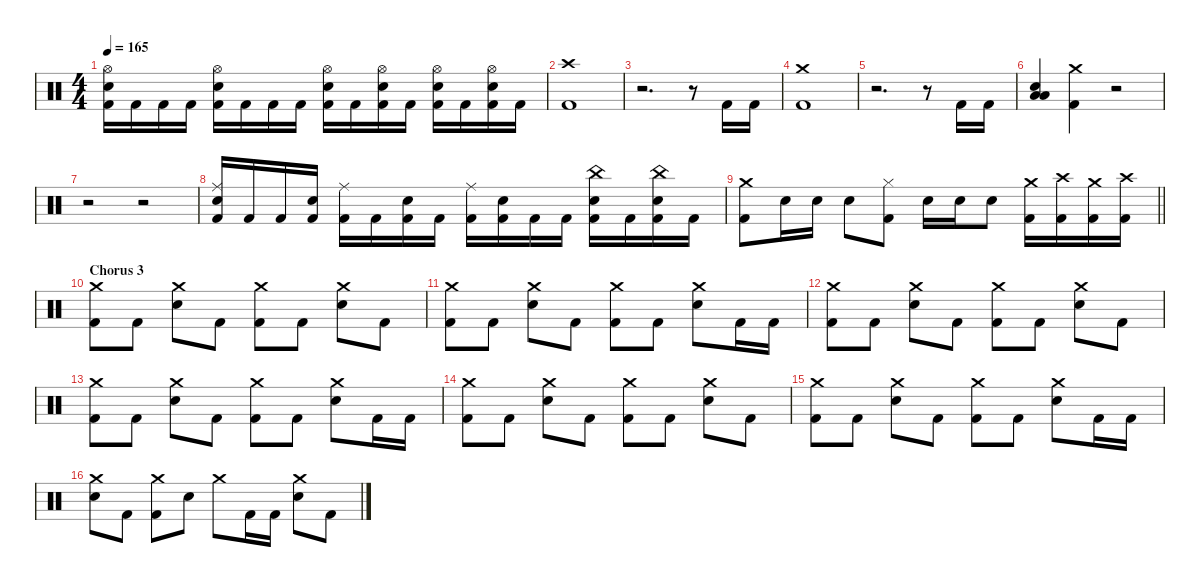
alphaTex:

\defaultSystemsLayout 4
\hideDynamics
\bracketExtendMode nobrackets
\singleTrackTrackNamePolicy hidden
\multiTrackTrackNamePolicy hidden
\firstSystemTrackNameMode fullname
\firstSystemTrackNameOrientation horizontal
\otherSystemsTrackNameOrientation horizontal
\track ("Percussions" "drm.") {instrument percussion}
\staff {score}
\articulation defaults
\ts (4 4)
\tempo 165
\clef neutral
\ks c
("Hi-Hat (open)" "Snare (hit) 2" "Kick (hit) 2").16{dy f beam Down} "Kick (hit) 2".16{beam Down} "Kick (hit) 2".16{beam Down} "Kick (hit) 2".16{beam Down} ("Hi-Hat (open)" "Snare (hit) 2" "Kick (hit) 2").16{beam Down} "Kick (hit) 2".16{beam Down} "Kick (hit) 2".16{beam Down} "Kick (hit) 2".16{beam Down} ("Hi-Hat (open)" "Snare (hit) 2" "Kick (hit) 2").16{beam Down} "Kick (hit) 2".16{beam Down} ("Hi-Hat (open)" "Snare (hit) 2" "Kick (hit) 2").16{beam Down} "Kick (hit) 2".16{beam Down} ("Hi-Hat (open)" "Snare (hit) 2" "Kick (hit) 2").16{beam Down} "Kick (hit) 2".16{beam Down} ("Hi-Hat (open)" "Snare (hit) 2" "Kick (hit) 2").16{beam Down} "Kick (hit) 2".16{beam Down} |
("Crash high (hit)" "Kick (hit) 2").1{beam Down} |
r.2{d beam Down} r.8{beam Down} "Kick (hit) 2".16{beam Up} "Kick (hit) 2".16{beam Up} |
("Crash medium (hit)" "Kick (hit) 2").1{beam Down} |
r.2{d beam Down} r.8{beam Down} "Kick (hit) 2".16{beam Up} "Kick (hit) 2".16{beam Up} |
("Snare (hit) 2" "Low Floor Tom (hit)" "Low Floor Tom (hit)").4{beam Up} ("Crash medium (hit)" "Kick (hit) 2").4{beam Down} r.2{beam Down} |
r.2{beam Down} r.2{beam Down} |
("Ride (middle)" "Snare (hit) 2" "Kick (hit) 2").16{dy fff beam Up} "Kick (hit) 2".16{beam Up} "Kick (hit) 2".16{beam Up} ("Snare (hit) 2" "Kick (hit) 2").16{beam Up} ("Ride (middle)" "Kick (hit) 2").16{beam Down} "Kick (hit) 2".16{beam Down} ("Snare (hit) 2" "Kick (hit) 2").16{beam Down} "Kick (hit) 2".16{beam Down} ("Ride (middle)" "Kick (hit) 2").16{beam Down} ("Snare (hit) 2" "Kick (hit) 2").16{beam Down} "Kick (hit) 2".16{beam Down} "Kick (hit) 2".16{beam Down} ("China (hit)" "Snare (hit) 2" "Kick (hit) 2").16{beam Down} "Kick (hit) 2".16{beam Down} ("China (hit)" "Snare (hit) 2" "Kick (hit) 2").16{beam Down} "Kick (hit) 2".16{beam Down} |
\barLineRight lightlight
("Crash medium (hit)" "Kick (hit) 2").8{beam Down} "Snare (hit) 2".16{beam Down} "Snare (hit) 2".16{beam Down} "Snare (hit) 2".8{beam Down} ("Hi-Hat (closed)" "Kick (hit) 2").8{beam Down} "Snare (hit) 2".16{beam Down} "Snare (hit) 2".16{beam Down} "Snare (hit) 2".8{beam Down} ("Crash medium (hit)" "Kick (hit) 2").16{beam Down} ("Crash high (hit)" "Kick (hit) 2").16{beam Down} ("Crash medium (hit)" "Kick (hit) 2").16{beam Down} ("Crash high (hit)" "Kick (hit) 2").16{beam Down} |
\section ("" "Chorus 3")
("Crash medium (hit)" "Kick (hit) 2").8{dy f beam Down} "Kick (hit) 2".8{beam Down} ("Crash medium (hit)" "Snare (hit) 2").8{beam Down} "Kick (hit) 2".8{beam Down} ("Crash medium (hit)" "Kick (hit) 2").8{beam Down} "Kick (hit) 2".8{beam Down} ("Crash medium (hit)" "Snare (hit) 2").8{beam Down} "Kick (hit) 2".8{beam Down} |
("Crash medium (hit)" "Kick (hit) 2").8{beam Down} "Kick (hit) 2".8{beam Down} ("Crash medium (hit)" "Snare (hit) 2").8{beam Down} "Kick (hit) 2".8{beam Down} ("Crash medium (hit)" "Kick (hit) 2").8{beam Down} "Kick (hit) 2".8{beam Down} ("Crash medium (hit)" "Snare (hit) 2").8{beam Down} "Kick (hit) 2".16{beam Down} "Kick (hit) 2".16{beam Down} |
("Crash medium (hit)" "Kick (hit) 2").8{beam Down} "Kick (hit) 2".8{beam Down} ("Crash medium (hit)" "Snare (hit) 2").8{beam Down} "Kick (hit) 2".8{beam Down} ("Crash medium (hit)" "Kick (hit) 2").8{beam Down} "Kick (hit) 2".8{beam Down} ("Crash medium (hit)" "Snare (hit) 2").8{beam Down} "Kick (hit) 2".8{beam Down} |
("Crash medium (hit)" "Kick (hit) 2").8{beam Down} "Kick (hit) 2".8{beam Down} ("Crash medium (hit)" "Snare (hit) 2").8{beam Down} "Kick (hit) 2".8{beam Down} ("Crash medium (hit)" "Kick (hit) 2").8{beam Down} "Kick (hit) 2".8{beam Down} ("Crash medium (hit)" "Snare (hit) 2").8{beam Down} "Kick (hit) 2".16{beam Down} "Kick (hit) 2".16{beam Down} |
("Crash medium (hit)" "Kick (hit) 2").8{beam Down} "Kick (hit) 2".8{beam Down} ("Crash medium (hit)" "Snare (hit) 2").8{beam Down} "Kick (hit) 2".8{beam Down} ("Crash medium (hit)" "Kick (hit) 2").8{beam Down} "Kick (hit) 2".8{beam Down} ("Crash medium (hit)" "Snare (hit) 2").8{beam Down} "Kick (hit) 2".8{beam Down} |
("Crash medium (hit)" "Kick (hit) 2").8{beam Down} "Kick (hit) 2".8{beam Down} ("Crash medium (hit)" "Snare (hit) 2").8{beam Down} "Kick (hit) 2".8{beam Down} ("Crash medium (hit)" "Kick (hit) 2").8{beam Down} "Kick (hit) 2".8{beam Down} ("Crash medium (hit)" "Snare (hit) 2").8{beam Down} "Kick (hit) 2".16{beam Down} "Kick (hit) 2".16{beam Down} |
("Crash medium (hit)" "Snare (hit) 2").8{beam Down} "Kick (hit) 2".8{beam Down} ("Crash medium (hit)" "Kick (hit) 2").8{beam Down} "Snare (hit) 2".8{beam Down} "Crash medium (hit)".8{beam Down} "Kick (hit) 2".16{beam Down} "Kick (hit) 2".16{beam Down} ("Crash medium (hit)" "Snare (hit) 2").8{beam Down} "Kick (hit) 2".8{beam Down}
